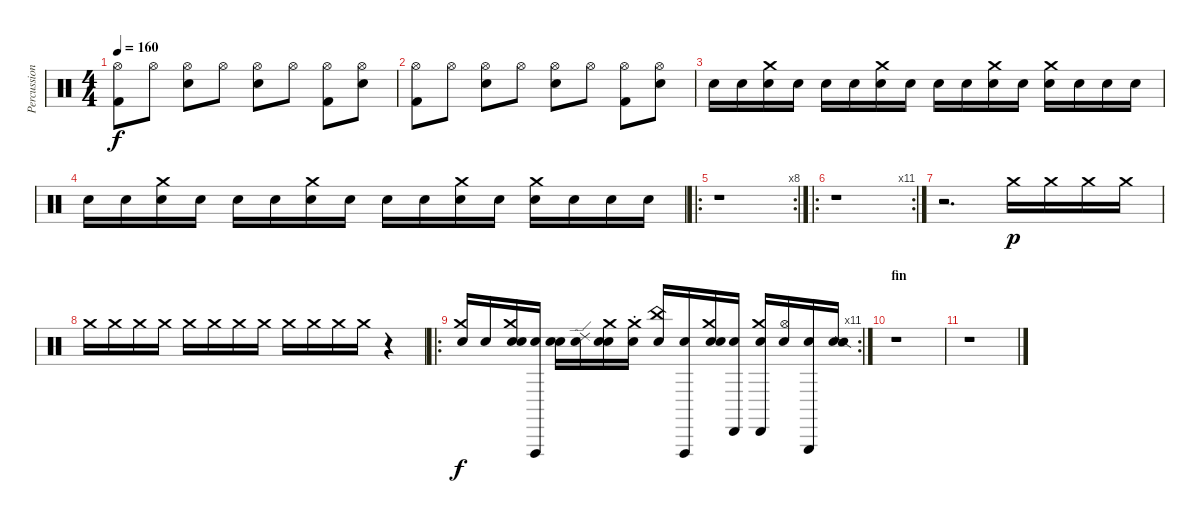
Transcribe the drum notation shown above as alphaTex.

\track ("Percussions" "Percussion") {instrument percussion}
\staff {score}
\articulation defaults
\ts (4 4)
\tempo 160
\clef neutral
\ks c
("Hi-Hat (open)" "Kick (hit) 2").8{dy f} "Hi-Hat (open)".8 ("Hi-Hat (open)" "Electric Snare (hit)").8 "Hi-Hat (open)".8 ("Hi-Hat (open)" "Electric Snare (hit)").8 "Hi-Hat (open)".8 ("Hi-Hat (open)" "Kick (hit) 2").8 ("Hi-Hat (open)" "Electric Snare (hit)").8 |
("Hi-Hat (open)" "Kick (hit) 2").8 "Hi-Hat (open)".8 ("Hi-Hat (open)" "Electric Snare (hit)").8 "Hi-Hat (open)".8 ("Hi-Hat (open)" "Electric Snare (hit)").8 "Hi-Hat (open)".8 ("Hi-Hat (open)" "Kick (hit) 2").8 ("Hi-Hat (open)" "Electric Snare (hit)").8 |
"Electric Snare (hit)".16 "Electric Snare (hit)".16 ("Electric Snare (hit)" "Crash medium (hit)").16 "Electric Snare (hit)".16 "Electric Snare (hit)".16 "Electric Snare (hit)".16 ("Electric Snare (hit)" "Crash medium (hit)").16 "Electric Snare (hit)".16 "Electric Snare (hit)".16 "Electric Snare (hit)".16 ("Electric Snare (hit)" "Crash medium (hit)").16 "Electric Snare (hit)".16 ("Electric Snare (hit)" "Crash medium (hit)").16 "Electric Snare (hit)".16 "Electric Snare (hit)".16 "Electric Snare (hit)".16 |
"Electric Snare (hit)".16 "Electric Snare (hit)".16 ("Electric Snare (hit)" "Crash medium (hit)").16 "Electric Snare (hit)".16 "Electric Snare (hit)".16 "Electric Snare (hit)".16 ("Electric Snare (hit)" "Crash medium (hit)").16 "Electric Snare (hit)".16 "Electric Snare (hit)".16 "Electric Snare (hit)".16 ("Electric Snare (hit)" "Crash medium (hit)").16 "Electric Snare (hit)".16 ("Electric Snare (hit)" "Crash medium (hit)").16 "Electric Snare (hit)".16 "Electric Snare (hit)".16 "Electric Snare (hit)".16 |
\ro
\rc 8
r.1 |
\ro
\rc 11
r.1 |
r.2{d} "Crash medium (hit)".16{dy p} "Crash medium (hit)".16 "Crash medium (hit)".16 "Crash medium (hit)".16 |
"Crash medium (hit)".16 "Crash medium (hit)".16 "Crash medium (hit)".16 "Crash medium (hit)".16 "Crash medium (hit)".16 "Crash medium (hit)".16 "Crash medium (hit)".16 "Crash medium (hit)".16 "Crash medium (hit)".16 "Crash medium (hit)".16 "Crash medium (hit)".16 "Crash medium (hit)".16 r.4 |
\ro
\rc 11
("Electric Snare (hit)" "Crash medium (hit)").16{dy f} "Electric Snare (hit)".16 ("Electric Snare (hit)" "Snare (hit)" "Crash medium (hit)").16 ("Electric Snare (hit)" "Vibraslap (hit)").16 ("Electric Snare (hit)" "Snare (hit)").16 ("Electric Snare (hit)" "Ride (edge) 2").16 ("Electric Snare (hit)" "Snare (hit)" "Crash medium (hit)").16 ("Electric Snare (hit)" "Crash medium (choke)").16 ("Electric Snare (hit)" "China (choke)").16 ("Electric Snare (hit)" "Vibraslap (hit)").16 ("Electric Snare (hit)" "Snare (hit)" "Crash medium (hit)").16 ("Electric Snare (hit)" "Cabasa (hit)").16 ("Electric Snare (hit)" "Cabasa (hit)" "Crash medium (hit)").16 ("Electric Snare (hit)" "Hi-Hat (open)").16 ("Electric Snare (hit)" "Triangle (hit)").16 ("Electric Snare (hit)" "Snare (side stick) 2").16 |
\section ("" "fin")
r.1 |
r.1
